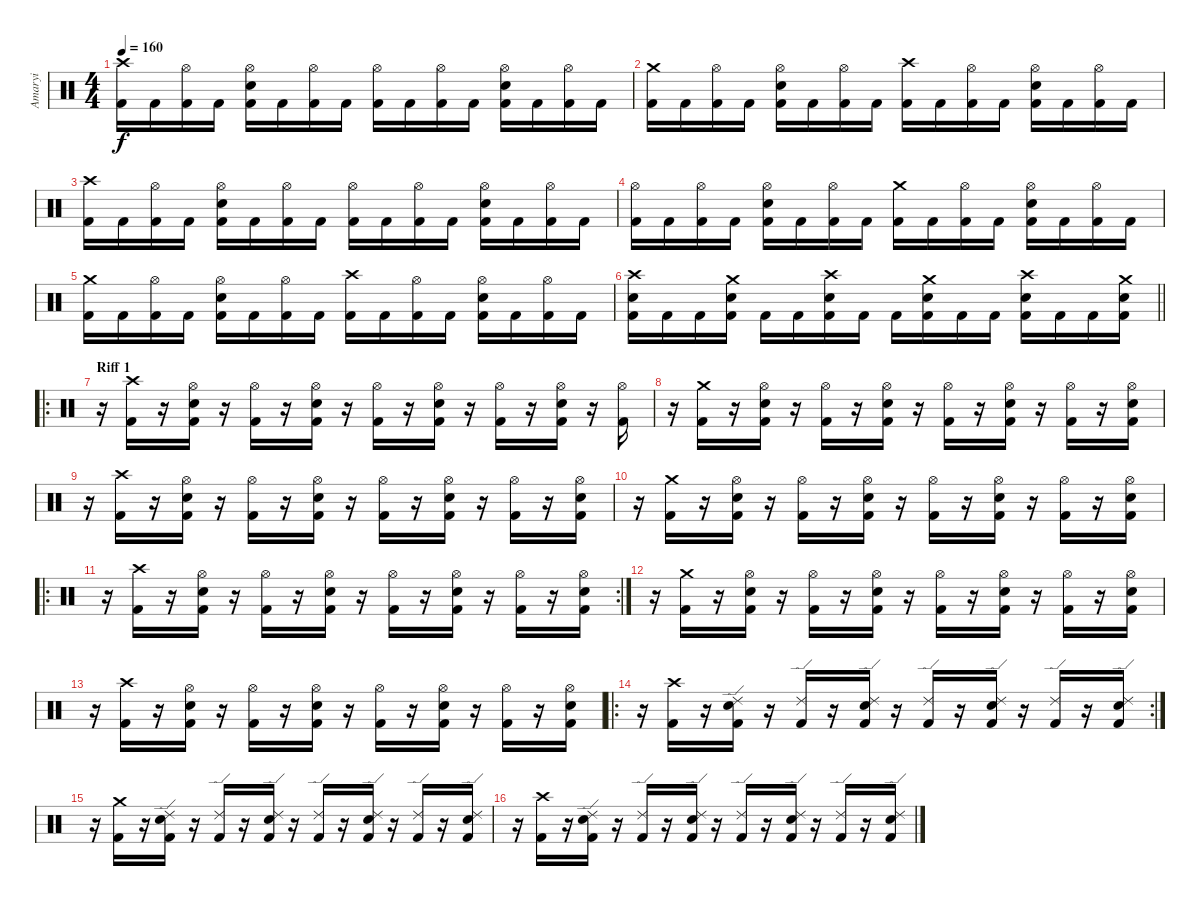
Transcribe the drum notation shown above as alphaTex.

\track ("Amaryi" "Amaryi") {instrument percussion}
\staff {score}
\articulation defaults
\ts (4 4)
\tempo 160
\clef neutral
\ks c
("Crash high (hit)" "Kick (hit) 2").16{dy f} "Kick (hit) 2".16 ("Hi-Hat (open)" "Kick (hit) 2").16 "Kick (hit) 2".16 ("Hi-Hat (open)" "Electric Snare (hit)" "Kick (hit) 2").16 "Kick (hit) 2".16 ("Hi-Hat (open)" "Kick (hit) 2").16 "Kick (hit) 2".16 ("Hi-Hat (open)" "Kick (hit) 2").16 "Kick (hit) 2".16 ("Hi-Hat (open)" "Kick (hit) 2").16 "Kick (hit) 2".16 ("Hi-Hat (open)" "Electric Snare (hit)" "Kick (hit) 2").16 "Kick (hit) 2".16 ("Hi-Hat (open)" "Kick (hit) 2").16 "Kick (hit) 2".16 |
("Crash medium (hit)" "Kick (hit) 2").16 "Kick (hit) 2".16 ("Hi-Hat (open)" "Kick (hit) 2").16 "Kick (hit) 2".16 ("Hi-Hat (open)" "Electric Snare (hit)" "Kick (hit) 2").16 "Kick (hit) 2".16 ("Hi-Hat (open)" "Kick (hit) 2").16 "Kick (hit) 2".16 ("Crash high (hit)" "Kick (hit) 2").16 "Kick (hit) 2".16 ("Hi-Hat (open)" "Kick (hit) 2").16 "Kick (hit) 2".16 ("Hi-Hat (open)" "Electric Snare (hit)" "Kick (hit) 2").16 "Kick (hit) 2".16 ("Hi-Hat (open)" "Kick (hit) 2").16 "Kick (hit) 2".16 |
("Crash high (hit)" "Kick (hit) 2").16 "Kick (hit) 2".16 ("Hi-Hat (open)" "Kick (hit) 2").16 "Kick (hit) 2".16 ("Hi-Hat (open)" "Electric Snare (hit)" "Kick (hit) 2").16 "Kick (hit) 2".16 ("Hi-Hat (open)" "Kick (hit) 2").16 "Kick (hit) 2".16 ("Hi-Hat (open)" "Kick (hit) 2").16 "Kick (hit) 2".16 ("Hi-Hat (open)" "Kick (hit) 2").16 "Kick (hit) 2".16 ("Hi-Hat (open)" "Electric Snare (hit)" "Kick (hit) 2").16 "Kick (hit) 2".16 ("Hi-Hat (open)" "Kick (hit) 2").16 "Kick (hit) 2".16 |
("Hi-Hat (open)" "Kick (hit) 2").16 "Kick (hit) 2".16 ("Hi-Hat (open)" "Kick (hit) 2").16 "Kick (hit) 2".16 ("Hi-Hat (open)" "Electric Snare (hit)" "Kick (hit) 2").16 "Kick (hit) 2".16 ("Hi-Hat (open)" "Kick (hit) 2").16 "Kick (hit) 2".16 ("Crash medium (hit)" "Kick (hit) 2").16 "Kick (hit) 2".16 ("Hi-Hat (open)" "Kick (hit) 2").16 "Kick (hit) 2".16 ("Hi-Hat (open)" "Electric Snare (hit)" "Kick (hit) 2").16 "Kick (hit) 2".16 ("Hi-Hat (open)" "Kick (hit) 2").16 "Kick (hit) 2".16 |
("Crash medium (hit)" "Kick (hit) 2").16 "Kick (hit) 2".16 ("Hi-Hat (open)" "Kick (hit) 2").16 "Kick (hit) 2".16 ("Hi-Hat (open)" "Electric Snare (hit)" "Kick (hit) 2").16 "Kick (hit) 2".16 ("Hi-Hat (open)" "Kick (hit) 2").16 "Kick (hit) 2".16 ("Crash high (hit)" "Kick (hit) 2").16 "Kick (hit) 2".16 ("Hi-Hat (open)" "Kick (hit) 2").16 "Kick (hit) 2".16 ("Hi-Hat (open)" "Electric Snare (hit)" "Kick (hit) 2").16 "Kick (hit) 2".16 ("Hi-Hat (open)" "Kick (hit) 2").16 "Kick (hit) 2".16 |
\barLineRight lightlight
("Crash high (hit)" "Electric Snare (hit)" "Kick (hit) 2").16 "Kick (hit) 2".16 "Kick (hit) 2".16 ("Crash medium (hit)" "Electric Snare (hit)" "Kick (hit) 2").16 "Kick (hit) 2".16 "Kick (hit) 2".16 ("Crash high (hit)" "Electric Snare (hit)" "Kick (hit) 2").16 "Kick (hit) 2".16 "Kick (hit) 2".16 ("Crash medium (hit)" "Electric Snare (hit)" "Kick (hit) 2").16 "Kick (hit) 2".16 "Kick (hit) 2".16 ("Crash high (hit)" "Electric Snare (hit)" "Kick (hit) 2").16 "Kick (hit) 2".16 "Kick (hit) 2".16 ("Crash medium (hit)" "Electric Snare (hit)" "Kick (hit) 2").16 |
\ro
\section ("" "Riff 1")
r.16 ("Crash high (hit)" "Kick (hit) 2").16 r.16 ("Electric Snare (hit)" "Hi-Hat (open)" "Kick (hit) 2").16 r.16 ("Hi-Hat (open)" "Kick (hit) 2").16 r.16 ("Electric Snare (hit)" "Hi-Hat (open)" "Kick (hit) 2").16 r.16 ("Hi-Hat (open)" "Kick (hit) 2").16 r.16 ("Electric Snare (hit)" "Hi-Hat (open)" "Kick (hit) 2").16 r.16 ("Hi-Hat (open)" "Kick (hit) 2").16 r.16 ("Electric Snare (hit)" "Hi-Hat (open)" "Kick (hit) 2").16 r.16 ("Hi-Hat (open)" "Kick (hit) 2").16 |
r.16 ("Crash medium (hit)" "Kick (hit) 2").16 r.16 ("Electric Snare (hit)" "Hi-Hat (open)" "Kick (hit) 2").16 r.16 ("Hi-Hat (open)" "Kick (hit) 2").16 r.16 ("Electric Snare (hit)" "Hi-Hat (open)" "Kick (hit) 2").16 r.16 ("Hi-Hat (open)" "Kick (hit) 2").16 r.16 ("Electric Snare (hit)" "Hi-Hat (open)" "Kick (hit) 2").16 r.16 ("Hi-Hat (open)" "Kick (hit) 2").16 r.16 ("Electric Snare (hit)" "Hi-Hat (open)" "Kick (hit) 2").16 |
r.16 ("Crash high (hit)" "Kick (hit) 2").16 r.16 ("Electric Snare (hit)" "Hi-Hat (open)" "Kick (hit) 2").16 r.16 ("Hi-Hat (open)" "Kick (hit) 2").16 r.16 ("Electric Snare (hit)" "Hi-Hat (open)" "Kick (hit) 2").16 r.16 ("Hi-Hat (open)" "Kick (hit) 2").16 r.16 ("Electric Snare (hit)" "Hi-Hat (open)" "Kick (hit) 2").16 r.16 ("Hi-Hat (open)" "Kick (hit) 2").16 r.16 ("Electric Snare (hit)" "Hi-Hat (open)" "Kick (hit) 2").16 |
r.16 ("Crash medium (hit)" "Kick (hit) 2").16 r.16 ("Electric Snare (hit)" "Hi-Hat (open)" "Kick (hit) 2").16 r.16 ("Hi-Hat (open)" "Kick (hit) 2").16 r.16 ("Electric Snare (hit)" "Hi-Hat (open)" "Kick (hit) 2").16 r.16 ("Hi-Hat (open)" "Kick (hit) 2").16 r.16 ("Electric Snare (hit)" "Hi-Hat (open)" "Kick (hit) 2").16 r.16 ("Hi-Hat (open)" "Kick (hit) 2").16 r.16 ("Electric Snare (hit)" "Hi-Hat (open)" "Kick (hit) 2").16 |
\ro
\rc 2
r.16 ("Crash high (hit)" "Kick (hit) 2").16 r.16 ("Electric Snare (hit)" "Hi-Hat (open)" "Kick (hit) 2").16 r.16 ("Hi-Hat (open)" "Kick (hit) 2").16 r.16 ("Electric Snare (hit)" "Hi-Hat (open)" "Kick (hit) 2").16 r.16 ("Hi-Hat (open)" "Kick (hit) 2").16 r.16 ("Electric Snare (hit)" "Hi-Hat (open)" "Kick (hit) 2").16 r.16 ("Hi-Hat (open)" "Kick (hit) 2").16 r.16 ("Electric Snare (hit)" "Hi-Hat (open)" "Kick (hit) 2").16 |
r.16 ("Crash medium (hit)" "Kick (hit) 2").16 r.16 ("Electric Snare (hit)" "Hi-Hat (open)" "Kick (hit) 2").16 r.16 ("Hi-Hat (open)" "Kick (hit) 2").16 r.16 ("Electric Snare (hit)" "Hi-Hat (open)" "Kick (hit) 2").16 r.16 ("Hi-Hat (open)" "Kick (hit) 2").16 r.16 ("Electric Snare (hit)" "Hi-Hat (open)" "Kick (hit) 2").16 r.16 ("Hi-Hat (open)" "Kick (hit) 2").16 r.16 ("Electric Snare (hit)" "Hi-Hat (open)" "Kick (hit) 2").16 |
r.16 ("Crash high (hit)" "Kick (hit) 2").16 r.16 ("Electric Snare (hit)" "Hi-Hat (open)" "Kick (hit) 2").16 r.16 ("Hi-Hat (open)" "Kick (hit) 2").16 r.16 ("Electric Snare (hit)" "Hi-Hat (open)" "Kick (hit) 2").16 r.16 ("Hi-Hat (open)" "Kick (hit) 2").16 r.16 ("Electric Snare (hit)" "Hi-Hat (open)" "Kick (hit) 2").16 r.16 ("Hi-Hat (open)" "Kick (hit) 2").16 r.16 ("Electric Snare (hit)" "Hi-Hat (open)" "Kick (hit) 2").16 |
\ro
\rc 2
r.16 ("Crash high (hit)" "Kick (hit) 2").16 r.16 ("Electric Snare (hit)" "Ride (edge) 2" "Kick (hit) 2").16 r.16 ("Ride (edge) 2" "Kick (hit) 2").16 r.16 ("Electric Snare (hit)" "Ride (edge) 2" "Kick (hit) 2").16 r.16 ("Ride (edge) 2" "Kick (hit) 2").16 r.16 ("Electric Snare (hit)" "Ride (edge) 2" "Kick (hit) 2").16 r.16 ("Ride (edge) 2" "Kick (hit) 2").16 r.16 ("Electric Snare (hit)" "Ride (edge) 2" "Kick (hit) 2").16 |
r.16 ("Crash medium (hit)" "Kick (hit) 2").16 r.16 ("Electric Snare (hit)" "Ride (edge) 2" "Kick (hit) 2").16 r.16 ("Ride (edge) 2" "Kick (hit) 2").16 r.16 ("Electric Snare (hit)" "Ride (edge) 2" "Kick (hit) 2").16 r.16 ("Ride (edge) 2" "Kick (hit) 2").16 r.16 ("Electric Snare (hit)" "Ride (edge) 2" "Kick (hit) 2").16 r.16 ("Ride (edge) 2" "Kick (hit) 2").16 r.16 ("Electric Snare (hit)" "Ride (edge) 2" "Kick (hit) 2").16 |
r.16 ("Crash high (hit)" "Kick (hit) 2").16 r.16 ("Electric Snare (hit)" "Ride (edge) 2" "Kick (hit) 2").16 r.16 ("Ride (edge) 2" "Kick (hit) 2").16 r.16 ("Electric Snare (hit)" "Ride (edge) 2" "Kick (hit) 2").16 r.16 ("Ride (edge) 2" "Kick (hit) 2").16 r.16 ("Electric Snare (hit)" "Ride (edge) 2" "Kick (hit) 2").16 r.16 ("Ride (edge) 2" "Kick (hit) 2").16 r.16 ("Electric Snare (hit)" "Ride (edge) 2" "Kick (hit) 2").16
